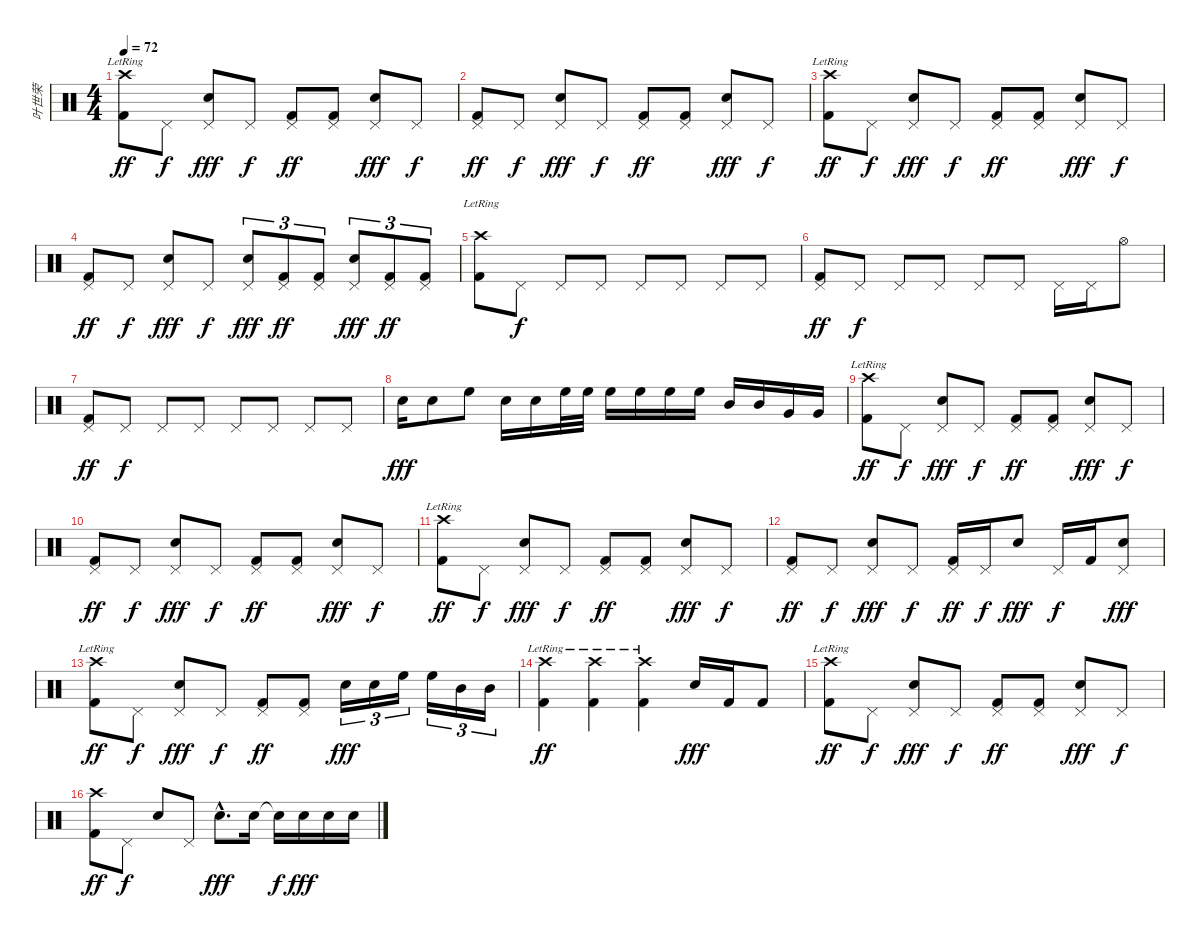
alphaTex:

\track ("叶世荣" "叶世荣") {instrument percussion}
\staff {score}
\articulation defaults
\ts (4 4)
\tempo 72
\clef neutral
\ks c
("Crash high (hit)"{lr} "Kick (hit) 2").8{dy ff} "Pedal Hi-Hat (hit)".8{dy f} ("Pedal Hi-Hat (hit)" "Electric Snare (hit)").8{dy fff} "Pedal Hi-Hat (hit)".8{dy f} ("Pedal Hi-Hat (hit)" "Kick (hit) 2").8{dy ff} ("Pedal Hi-Hat (hit)" "Kick (hit) 2").8 ("Pedal Hi-Hat (hit)" "Electric Snare (hit)").8{dy fff} "Pedal Hi-Hat (hit)".8{dy f} |
("Pedal Hi-Hat (hit)" "Kick (hit) 2").8{dy ff} "Pedal Hi-Hat (hit)".8{dy f} ("Pedal Hi-Hat (hit)" "Electric Snare (hit)").8{dy fff} "Pedal Hi-Hat (hit)".8{dy f} ("Pedal Hi-Hat (hit)" "Kick (hit) 2").8{dy ff} ("Pedal Hi-Hat (hit)" "Kick (hit) 2").8 ("Pedal Hi-Hat (hit)" "Electric Snare (hit)").8{dy fff} "Pedal Hi-Hat (hit)".8{dy f} |
("Crash high (hit)"{lr} "Kick (hit) 2").8{dy ff} "Pedal Hi-Hat (hit)".8{dy f} ("Pedal Hi-Hat (hit)" "Electric Snare (hit)").8{dy fff} "Pedal Hi-Hat (hit)".8{dy f} ("Pedal Hi-Hat (hit)" "Kick (hit) 2").8{dy ff} ("Pedal Hi-Hat (hit)" "Kick (hit) 2").8 ("Pedal Hi-Hat (hit)" "Electric Snare (hit)").8{dy fff} "Pedal Hi-Hat (hit)".8{dy f} |
("Pedal Hi-Hat (hit)" "Kick (hit) 2").8{dy ff} "Pedal Hi-Hat (hit)".8{dy f} ("Pedal Hi-Hat (hit)" "Electric Snare (hit)").8{dy fff} "Pedal Hi-Hat (hit)".8{dy f} ("Pedal Hi-Hat (hit)" "Electric Snare (hit)").8{tu (3 2) dy fff} ("Pedal Hi-Hat (hit)" "Kick (hit) 2").8{tu (3 2) dy ff} ("Pedal Hi-Hat (hit)" "Kick (hit) 2").8{tu (3 2)} ("Pedal Hi-Hat (hit)" "Electric Snare (hit)").8{tu (3 2) dy fff} ("Pedal Hi-Hat (hit)" "Kick (hit) 2").8{tu (3 2) dy ff} ("Pedal Hi-Hat (hit)" "Kick (hit) 2").8{tu (3 2)} |
("Crash high (hit)"{lr} "Kick (hit) 2").8 "Pedal Hi-Hat (hit)".8{dy f} "Pedal Hi-Hat (hit)".8 "Pedal Hi-Hat (hit)".8 "Pedal Hi-Hat (hit)".8 "Pedal Hi-Hat (hit)".8 "Pedal Hi-Hat (hit)".8 "Pedal Hi-Hat (hit)".8 |
("Pedal Hi-Hat (hit)" "Kick (hit) 2").8{dy ff} "Pedal Hi-Hat (hit)".8{dy f} "Pedal Hi-Hat (hit)".8 "Pedal Hi-Hat (hit)".8 "Pedal Hi-Hat (hit)".8 "Pedal Hi-Hat (hit)".8 "Pedal Hi-Hat (hit)".16 "Pedal Hi-Hat (hit)".16 "Hi-Hat (open)".8 |
("Pedal Hi-Hat (hit)" "Kick (hit) 2").8{dy ff} "Pedal Hi-Hat (hit)".8{dy f} "Pedal Hi-Hat (hit)".8 "Pedal Hi-Hat (hit)".8 "Pedal Hi-Hat (hit)".8 "Pedal Hi-Hat (hit)".8 "Pedal Hi-Hat (hit)".8 "Pedal Hi-Hat (hit)".8 |
"Electric Snare (hit)".16{dy fff} "Electric Snare (hit)".8 "High Floor Tom (hit)".8 "Electric Snare (hit)".16 "Electric Snare (hit)".16 "High Floor Tom (hit)".32 "High Floor Tom (hit)".32 "High Floor Tom (hit)".16 "High Floor Tom (hit)".16 "High Floor Tom (hit)".16 "High Floor Tom (hit)".16 "Mid Tom (hit)".16 "Mid Tom (hit)".16 "Very Low Tom (hit)".16 "Very Low Tom (hit)".16 |
("Crash high (hit)"{lr} "Kick (hit) 2").8{dy ff} "Pedal Hi-Hat (hit)".8{dy f} ("Pedal Hi-Hat (hit)" "Electric Snare (hit)").8{dy fff} "Pedal Hi-Hat (hit)".8{dy f} ("Pedal Hi-Hat (hit)" "Kick (hit) 2").8{dy ff} ("Pedal Hi-Hat (hit)" "Kick (hit) 2").8 ("Pedal Hi-Hat (hit)" "Electric Snare (hit)").8{dy fff} "Pedal Hi-Hat (hit)".8{dy f} |
("Pedal Hi-Hat (hit)" "Kick (hit) 2").8{dy ff} "Pedal Hi-Hat (hit)".8{dy f} ("Pedal Hi-Hat (hit)" "Electric Snare (hit)").8{dy fff} "Pedal Hi-Hat (hit)".8{dy f} ("Pedal Hi-Hat (hit)" "Kick (hit) 2").8{dy ff} ("Pedal Hi-Hat (hit)" "Kick (hit) 2").8 ("Pedal Hi-Hat (hit)" "Electric Snare (hit)").8{dy fff} "Pedal Hi-Hat (hit)".8{dy f} |
("Crash high (hit)"{lr} "Kick (hit) 2").8{dy ff} "Pedal Hi-Hat (hit)".8{dy f} ("Pedal Hi-Hat (hit)" "Electric Snare (hit)").8{dy fff} "Pedal Hi-Hat (hit)".8{dy f} ("Pedal Hi-Hat (hit)" "Kick (hit) 2").8{dy ff} ("Pedal Hi-Hat (hit)" "Kick (hit) 2").8 ("Pedal Hi-Hat (hit)" "Electric Snare (hit)").8{dy fff} "Pedal Hi-Hat (hit)".8{dy f} |
("Pedal Hi-Hat (hit)" "Kick (hit) 2").8{dy ff} "Pedal Hi-Hat (hit)".8{dy f} ("Pedal Hi-Hat (hit)" "Electric Snare (hit)").8{dy fff} "Pedal Hi-Hat (hit)".8{dy f} ("Pedal Hi-Hat (hit)" "Kick (hit) 2").16{dy ff} "Pedal Hi-Hat (hit)".16{dy f} "Electric Snare (hit)".8{dy fff} "Pedal Hi-Hat (hit)".16{dy f} "Kick (hit) 2".16 ("Pedal Hi-Hat (hit)" "Electric Snare (hit)").8{dy fff} |
("Crash high (hit)"{lr} "Kick (hit) 2").8{dy ff} "Pedal Hi-Hat (hit)".8{dy f} ("Pedal Hi-Hat (hit)" "Electric Snare (hit)").8{dy fff} "Pedal Hi-Hat (hit)".8{dy f} ("Pedal Hi-Hat (hit)" "Kick (hit) 2").8{dy ff} ("Pedal Hi-Hat (hit)" "Kick (hit) 2").8 "Electric Snare (hit)".16{tu (3 2) dy fff} "Electric Snare (hit)".16{tu (3 2)} "High Floor Tom (hit)".16{tu (3 2)} "High Floor Tom (hit)".16{tu (3 2)} "Mid Tom (hit)".16{tu (3 2)} "Mid Tom (hit)".16{tu (3 2)} |
("Crash high (hit)"{lr} "Kick (hit) 2").4{dy ff} ("Crash high (hit)"{lr} "Kick (hit) 2").4 ("Crash high (hit)"{lr} "Kick (hit) 2").4 "Electric Snare (hit)".16{dy fff} "Kick (hit) 2".16 "Kick (hit) 2".8 |
("Crash high (hit)"{lr} "Kick (hit) 2").8{dy ff} "Pedal Hi-Hat (hit)".8{dy f} ("Pedal Hi-Hat (hit)" "Electric Snare (hit)").8{dy fff} "Pedal Hi-Hat (hit)".8{dy f} ("Pedal Hi-Hat (hit)" "Kick (hit) 2").8{dy ff} ("Pedal Hi-Hat (hit)" "Kick (hit) 2").8 ("Pedal Hi-Hat (hit)" "Electric Snare (hit)").8{dy fff} "Pedal Hi-Hat (hit)".8{dy f} |
("Crash high (hit)" "Kick (hit) 2").8{dy ff} "Pedal Hi-Hat (hit)".8{dy f} "Electric Snare (hit)".8 "Pedal Hi-Hat (hit)".8 "Electric Snare (hit)"{hac}.8{d dy fff} "Electric Snare (hit)".16 "Snare (hit)"{t}.16{dy f} "Electric Snare (hit)".16{dy fff} "Electric Snare (hit)".16 "Electric Snare (hit)".16
